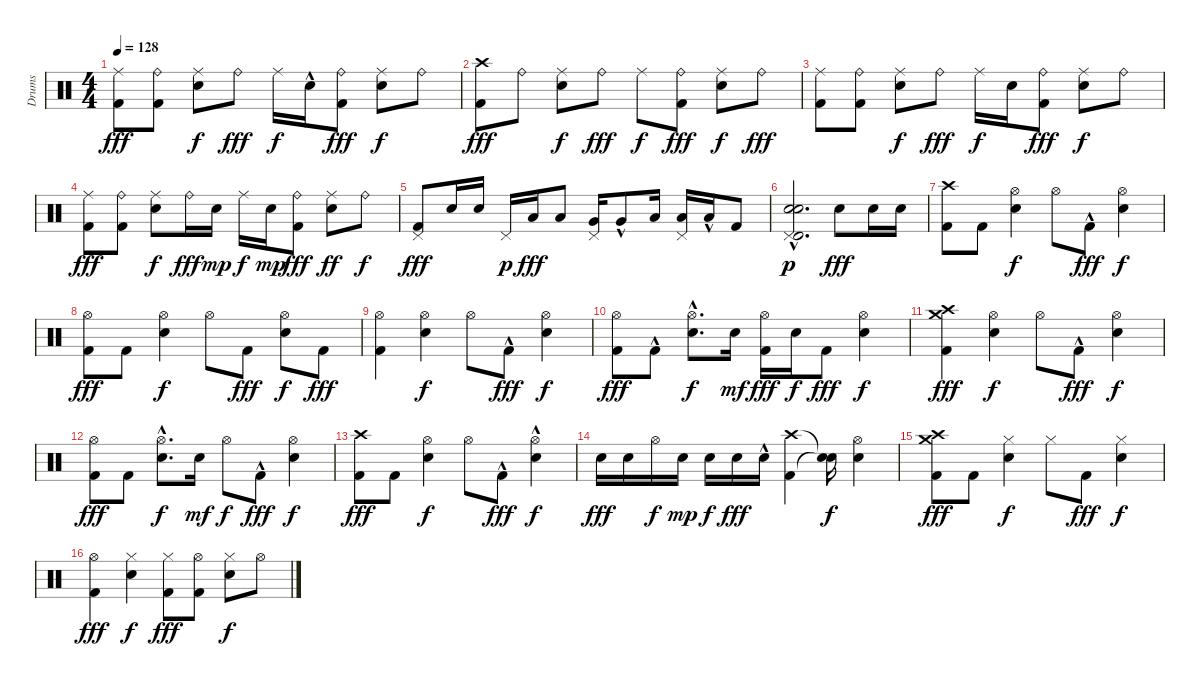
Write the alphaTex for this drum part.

\track ("Drums" "Drums") {instrument percussion}
\staff {score}
\articulation defaults
\ts (4 4)
\tempo 128
\clef neutral
\ks c
("Ride (middle)" "Kick (hit) 2").8{dy fff} ("Ride (bell)" "Kick (hit) 2").8 ("Ride (middle)" "Snare (hit) 2").8{dy f} "Ride (bell)".8{dy fff} "Ride (middle)".16{dy f} "Snare (hit) 2"{hac}.16 ("Ride (bell)" "Kick (hit) 2").8{dy fff} ("Ride (middle)" "Snare (hit) 2").8{dy f} "Ride (bell)".8 |
("Crash high (hit)" "Kick (hit) 2").8{dy fff} "Ride (bell)".8 ("Ride (middle)" "Snare (hit) 2").8{dy f} "Ride (bell)".8{dy fff} "Ride (middle)".8{dy f} ("Ride (bell)" "Kick (hit) 2").8{dy fff} ("Ride (middle)" "Snare (hit) 2").8{dy f} "Ride (bell)".8{dy fff} |
("Ride (middle)" "Kick (hit) 2").8 ("Ride (bell)" "Kick (hit) 2").8 ("Ride (middle)" "Snare (hit) 2").8{dy f} "Ride (bell)".8{dy fff} "Ride (middle)".16{dy f} "Snare (hit) 2".16 ("Ride (bell)" "Kick (hit) 2").8{dy fff} ("Ride (middle)" "Snare (hit) 2").8{dy f} "Ride (bell)".8 |
("Ride (middle)" "Kick (hit) 2").8{dy fff} ("Ride (bell)" "Kick (hit) 2").8 ("Ride (middle)" "Snare (hit) 2").8{dy f} "Ride (bell)".16{dy fff} "Snare (hit) 2".16{dy mp} "Ride (middle)".16{dy f} "Snare (hit) 2".16{dy mp} ("Ride (bell)" "Kick (hit) 2").8{dy fff} ("Ride (middle)" "Snare (hit) 2").8{dy ff} "Ride (bell)".8{dy f} |
("Pedal Hi-Hat (hit)" "Kick (hit) 2").8{dy fff} "Snare (hit) 2".16 "Snare (hit) 2".16 "Pedal Hi-Hat (hit)".16{dy p} "Low Tom (hit)".16{dy fff} "Low Tom (hit)".8 ("Pedal Hi-Hat (hit)" "Very Low Tom (hit)").16 "Very Low Tom (hit)"{hac}.8 "Low Floor Tom (hit)".16 ("Pedal Hi-Hat (hit)" "Low Floor Tom (hit)").16 "Low Floor Tom (hit)"{hac}.16 "Kick (hit) 2".8 |
("Pedal Hi-Hat (hit)" "Snare (hit) 2"{hac} "Electric Snare (hit)" "Timbale high (hit)").2{d dy p} "Snare (hit) 2".8{dy fff} "Snare (hit) 2".16 "Snare (hit) 2".16 |
("Crash high (hit)" "Kick (hit) 2").8 "Kick (hit) 2".8 ("Hi-Hat (open)" "Snare (hit) 2").4{dy f} "Hi-Hat (open)".8 "Kick (hit) 2"{hac}.8{dy fff} ("Hi-Hat (open)" "Snare (hit) 2").4{dy f} |
("Hi-Hat (open)" "Kick (hit) 2").8{dy fff} "Kick (hit) 2".8 ("Hi-Hat (open)" "Snare (hit) 2").4{dy f} "Hi-Hat (open)".8 "Kick (hit) 2".8{dy fff} ("Hi-Hat (open)" "Snare (hit) 2").8{dy f} "Kick (hit) 2".8{dy fff} |
("Hi-Hat (open)" "Kick (hit) 2").4 ("Hi-Hat (open)" "Snare (hit) 2").4{dy f} "Hi-Hat (open)".8 "Kick (hit) 2"{hac}.8{dy fff} ("Hi-Hat (open)" "Snare (hit) 2").4{dy f} |
("Hi-Hat (open)" "Kick (hit) 2").8{dy fff} "Kick (hit) 2"{hac}.8 ("Hi-Hat (open)" "Snare (hit) 2"{hac}).8{d dy f} "Snare (hit) 2".16{dy mf} ("Hi-Hat (open)" "Kick (hit) 2").16{dy fff} "Snare (hit) 2".16{dy f} "Kick (hit) 2".8{dy fff} ("Hi-Hat (open)" "Snare (hit) 2").4{dy f} |
("Crash high (hit)" "Crash medium (hit)" "Kick (hit) 2").4{dy fff} ("Hi-Hat (open)" "Snare (hit) 2").4{dy f} "Hi-Hat (open)".8 "Kick (hit) 2"{hac}.8{dy fff} ("Hi-Hat (open)" "Snare (hit) 2").4{dy f} |
("Hi-Hat (open)" "Kick (hit) 2").8{dy fff} "Kick (hit) 2".8 ("Hi-Hat (open)" "Snare (hit) 2"{hac}).8{d dy f} "Snare (hit) 2".16{dy mf} "Hi-Hat (open)".8{dy f} "Kick (hit) 2"{hac}.8{dy fff} ("Hi-Hat (open)" "Snare (hit) 2").4{dy f} |
("Crash high (hit)" "Kick (hit) 2").8{dy fff} "Kick (hit) 2".8 ("Hi-Hat (open)" "Snare (hit) 2").4{dy f} "Hi-Hat (open)".8 "Kick (hit) 2"{hac}.8{dy fff} ("Hi-Hat (open)"{hac} "Snare (hit) 2").4{dy f} |
"Snare (hit) 2".16{dy fff} "Snare (hit) 2".16 "Hi-Hat (open)".16{dy f} "Snare (hit) 2".16{dy mp} "Snare (hit) 2".16{dy f} "Snare (hit) 2".16{dy fff} "Snare (hit) 2"{hac}.16 ("Crash high (hit)" "Kick (hit) 2").4 ("Snare (hit)"{t} "Snare (hit)"{t}).16{dy f} ("Hi-Hat (open)" "Snare (hit) 2").4 |
("Crash high (hit)" "Crash medium (hit)" "Kick (hit) 2").8{dy fff} "Kick (hit) 2".8 ("Hi-Hat (closed)" "Snare (hit) 2").4{dy f} "Hi-Hat (closed)".8 "Kick (hit) 2".8{dy fff} ("Hi-Hat (closed)" "Snare (hit) 2").4{dy f} |
("Hi-Hat (open)" "Kick (hit) 2").4{dy fff} ("Hi-Hat (closed)" "Snare (hit) 2").4{dy f} ("Hi-Hat (closed)" "Kick (hit) 2").8{dy fff} ("Hi-Hat (open)" "Kick (hit) 2").8 ("Hi-Hat (closed)" "Snare (hit) 2").8{dy f} "Hi-Hat (open)".8
